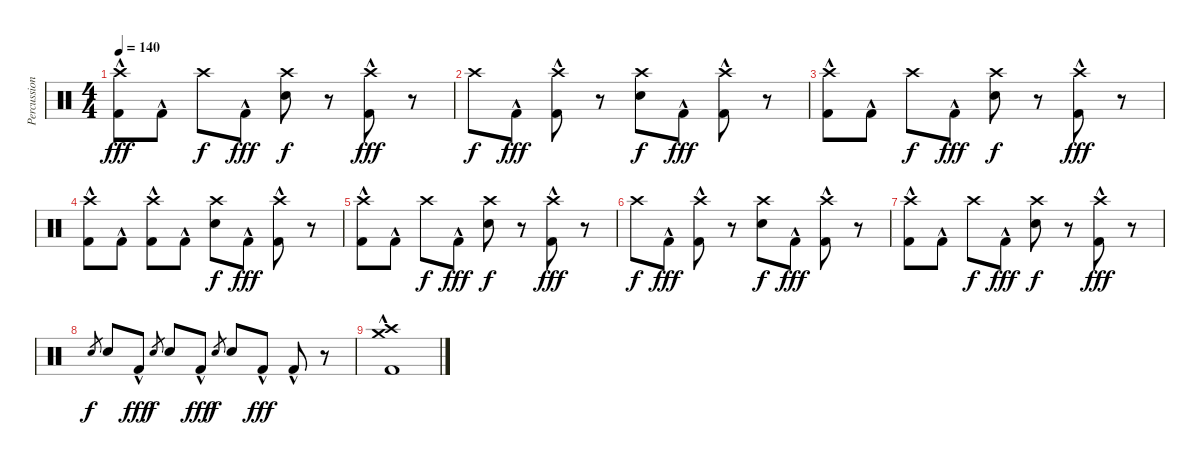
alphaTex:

\track ("Percussion" "Percussion") {instrument percussion}
\staff {score}
\articulation defaults
\ts (4 4)
\tempo 140
\clef neutral
\ks c
("Crash high (hit)" "Kick (hit) 2"{hac}).8{dy fff} "Kick (hit) 2"{hac}.8 "Crash high (hit)".8{dy f} "Kick (hit) 2"{hac}.8{dy fff} ("Crash high (hit)" "Electric Snare (hit)").8{dy f} r.8 ("Crash high (hit)" "Kick (hit) 2"{hac}).8{dy fff} r.8 |
"Crash high (hit)".8{dy f} "Kick (hit) 2"{hac}.8{dy fff} ("Crash high (hit)" "Kick (hit) 2"{hac}).8 r.8 ("Crash high (hit)" "Electric Snare (hit)").8{dy f} "Kick (hit) 2"{hac}.8{dy fff} ("Crash high (hit)" "Kick (hit) 2"{hac}).8 r.8 |
("Crash high (hit)" "Kick (hit) 2"{hac}).8 "Kick (hit) 2"{hac}.8 "Crash high (hit)".8{dy f} "Kick (hit) 2"{hac}.8{dy fff} ("Crash high (hit)" "Electric Snare (hit)").8{dy f} r.8 ("Crash high (hit)" "Kick (hit) 2"{hac}).8{dy fff} r.8 |
("Crash high (hit)" "Kick (hit) 2"{hac}).8 "Kick (hit) 2"{hac}.8 ("Crash high (hit)" "Kick (hit) 2"{hac}).8 "Kick (hit) 2"{hac}.8 ("Crash high (hit)" "Electric Snare (hit)").8{dy f} "Kick (hit) 2"{hac}.8{dy fff} ("Crash high (hit)" "Kick (hit) 2"{hac}).8 r.8 |
("Crash high (hit)" "Kick (hit) 2"{hac}).8 "Kick (hit) 2"{hac}.8 "Crash high (hit)".8{dy f} "Kick (hit) 2"{hac}.8{dy fff} ("Crash high (hit)" "Electric Snare (hit)").8{dy f} r.8 ("Crash high (hit)" "Kick (hit) 2"{hac}).8{dy fff} r.8 |
"Crash high (hit)".8{dy f} "Kick (hit) 2"{hac}.8{dy fff} ("Crash high (hit)" "Kick (hit) 2"{hac}).8 r.8 ("Crash high (hit)" "Electric Snare (hit)").8{dy f} "Kick (hit) 2"{hac}.8{dy fff} ("Crash high (hit)" "Kick (hit) 2"{hac}).8 r.8 |
("Crash high (hit)" "Kick (hit) 2"{hac}).8 "Kick (hit) 2"{hac}.8 "Crash high (hit)".8{dy f} "Kick (hit) 2"{hac}.8{dy fff} ("Crash high (hit)" "Electric Snare (hit)").8{dy f} r.8 ("Crash high (hit)" "Kick (hit) 2"{hac}).8{dy fff} r.8 |
"Snare (hit) 2".8{gr dy f} "Snare (hit) 2".8 "Kick (hit) 2"{hac}.8{dy fff} "Snare (hit) 2".8{gr dy f} "Snare (hit) 2".8 "Kick (hit) 2"{hac}.8{dy fff} "Snare (hit) 2".8{gr dy f} "Snare (hit) 2".8 "Kick (hit) 2"{hac}.8{dy fff} "Kick (hit) 2"{hac}.8 r.8 |
("Crash medium (hit)" "Crash high (hit)" "Kick (hit) 2"{hac}).1
